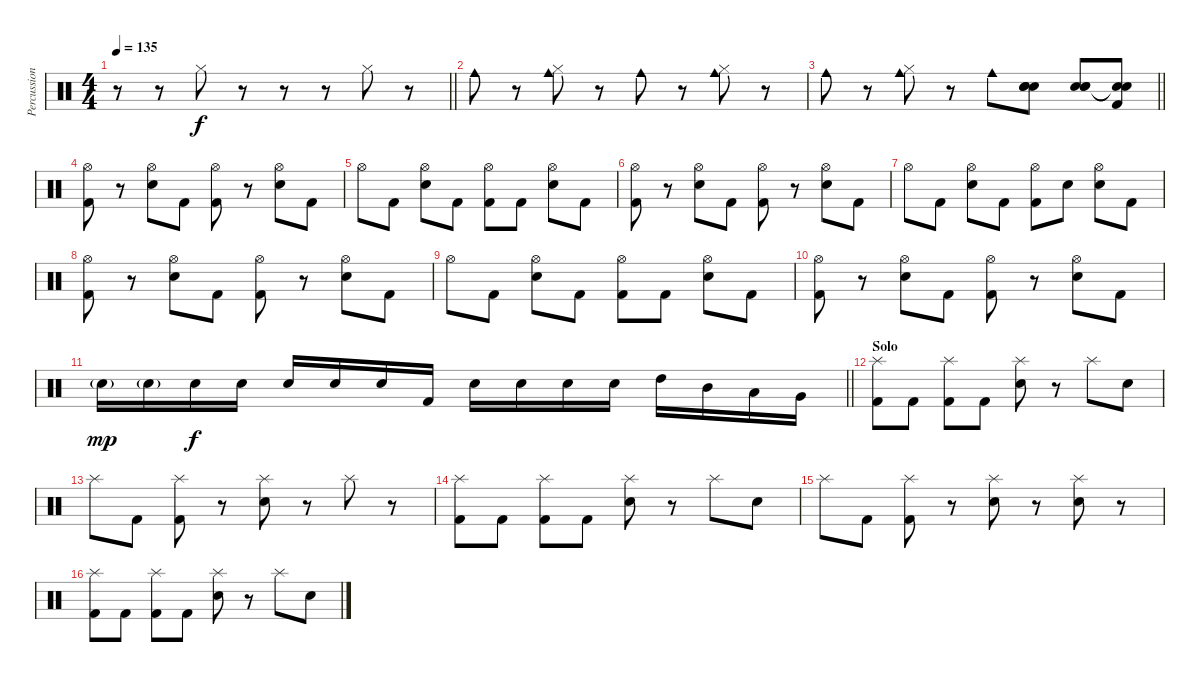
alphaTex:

\track ("Percussion" "Percussion") {instrument percussion}
\staff {score}
\articulation defaults
\ts (4 4)
\tempo 135
\clef neutral
\barLineRight lightlight
\ks c
r.8{dy f} r.8 "Hi-Hat (closed)".8 r.8 r.8 r.8 "Hi-Hat (closed)".8 r.8 |
"Cowbell medium (hit)".8 r.8 ("Cowbell medium (hit)" "Hi-Hat (closed)").8 r.8 "Cowbell medium (hit)".8 r.8 ("Cowbell medium (hit)" "Hi-Hat (closed)").8 r.8 |
\barLineRight lightlight "Cowbell medium (hit)".8
r.8 ("Cowbell medium (hit)" "Hi-Hat (closed)").8 r.8 "Cowbell medium (hit)".8 ("Hand Clap (hit)" "Hand Clap (hit)" "Electric Snare (hit)").8 ("Hand Clap (hit)" "Hand Clap (hit)" "Electric Snare (hit)").8 ("Snare (hit)"{t} "Snare (hit)"{t} "Kick (hit) 2").8 |
("Hi-Hat (open)" "Kick (hit) 2").8 r.8 ("Hi-Hat (open)" "Electric Snare (hit)").8 "Kick (hit) 2".8 ("Hi-Hat (open)" "Kick (hit) 2").8 r.8 ("Hi-Hat (open)" "Electric Snare (hit)").8 "Kick (hit) 2".8 |
"Hi-Hat (open)".8 "Kick (hit) 2".8 ("Hi-Hat (open)" "Electric Snare (hit)").8 "Kick (hit) 2".8 ("Hi-Hat (open)" "Kick (hit) 2").8 "Kick (hit) 2".8 ("Hi-Hat (open)" "Electric Snare (hit)").8 "Kick (hit) 2".8 |
("Hi-Hat (open)" "Kick (hit) 2").8 r.8 ("Hi-Hat (open)" "Electric Snare (hit)").8 "Kick (hit) 2".8 ("Hi-Hat (open)" "Kick (hit) 2").8 r.8 ("Hi-Hat (open)" "Electric Snare (hit)").8 "Kick (hit) 2".8 |
"Hi-Hat (open)".8 "Kick (hit) 2".8 ("Hi-Hat (open)" "Electric Snare (hit)").8 "Kick (hit) 2".8 ("Hi-Hat (open)" "Kick (hit) 2").8 "Electric Snare (hit)".8 ("Hi-Hat (open)" "Electric Snare (hit)").8 "Kick (hit) 2".8 |
("Hi-Hat (open)" "Kick (hit) 2").8 r.8 ("Hi-Hat (open)" "Electric Snare (hit)").8 "Kick (hit) 2".8 ("Hi-Hat (open)" "Kick (hit) 2").8 r.8 ("Hi-Hat (open)" "Electric Snare (hit)").8 "Kick (hit) 2".8 |
"Hi-Hat (open)".8 "Kick (hit) 2".8 ("Hi-Hat (open)" "Electric Snare (hit)").8 "Kick (hit) 2".8 ("Hi-Hat (open)" "Kick (hit) 2").8 "Kick (hit) 2".8 ("Hi-Hat (open)" "Electric Snare (hit)").8 "Kick (hit) 2".8 |
("Hi-Hat (open)" "Kick (hit) 2").8 r.8 ("Hi-Hat (open)" "Electric Snare (hit)").8 "Kick (hit) 2".8 ("Hi-Hat (open)" "Kick (hit) 2").8 r.8 ("Hi-Hat (open)" "Electric Snare (hit)").8 "Kick (hit) 2".8 |
\barLineRight lightlight "Electric Snare (hit)"{g}.16{dy mp} "Electric Snare (hit)"{g}.16 "Electric Snare (hit)".16{dy f} "Electric Snare (hit)".16 "Electric Snare (hit)".16 "Electric Snare (hit)".16 "Electric Snare (hit)".16 "Kick (hit) 2".16 "Electric Snare (hit)".16 "Electric Snare (hit)".16 "Electric Snare (hit)".16 "Electric Snare (hit)".16 "High Tom (hit)".16 "Mid Tom (hit)".16 "Low Tom (hit)".16 "Very Low Tom (hit)".16
|
\section ("" "Solo")
("Splash (hit)" "Kick (hit) 2").8 "Kick (hit) 2".8 ("Splash (hit)" "Kick (hit) 2").8 "Kick (hit) 2".8 ("Splash (hit)" "Electric Snare (hit)").8 r.8 "Splash (hit)".8 "Electric Snare (hit)".8 |
"Splash (hit)".8 "Kick (hit) 2".8 ("Splash (hit)" "Kick (hit) 2").8 r.8 ("Splash (hit)" "Electric Snare (hit)").8 r.8 "Splash (hit)".8 r.8 |
("Splash (hit)" "Kick (hit) 2").8 "Kick (hit) 2".8 ("Splash (hit)" "Kick (hit) 2").8 "Kick (hit) 2".8 ("Splash (hit)" "Electric Snare (hit)").8 r.8 "Splash (hit)".8 "Electric Snare (hit)".8 |
"Splash (hit)".8 "Kick (hit) 2".8 ("Splash (hit)" "Kick (hit) 2").8 r.8 ("Splash (hit)" "Electric Snare (hit)").8 r.8 ("Splash (hit)" "Electric Snare (hit)").8 r.8 |
("Splash (hit)" "Kick (hit) 2").8 "Kick (hit) 2".8 ("Splash (hit)" "Kick (hit) 2").8 "Kick (hit) 2".8 ("Splash (hit)" "Electric Snare (hit)").8 r.8 "Splash (hit)".8 "Electric Snare (hit)".8
